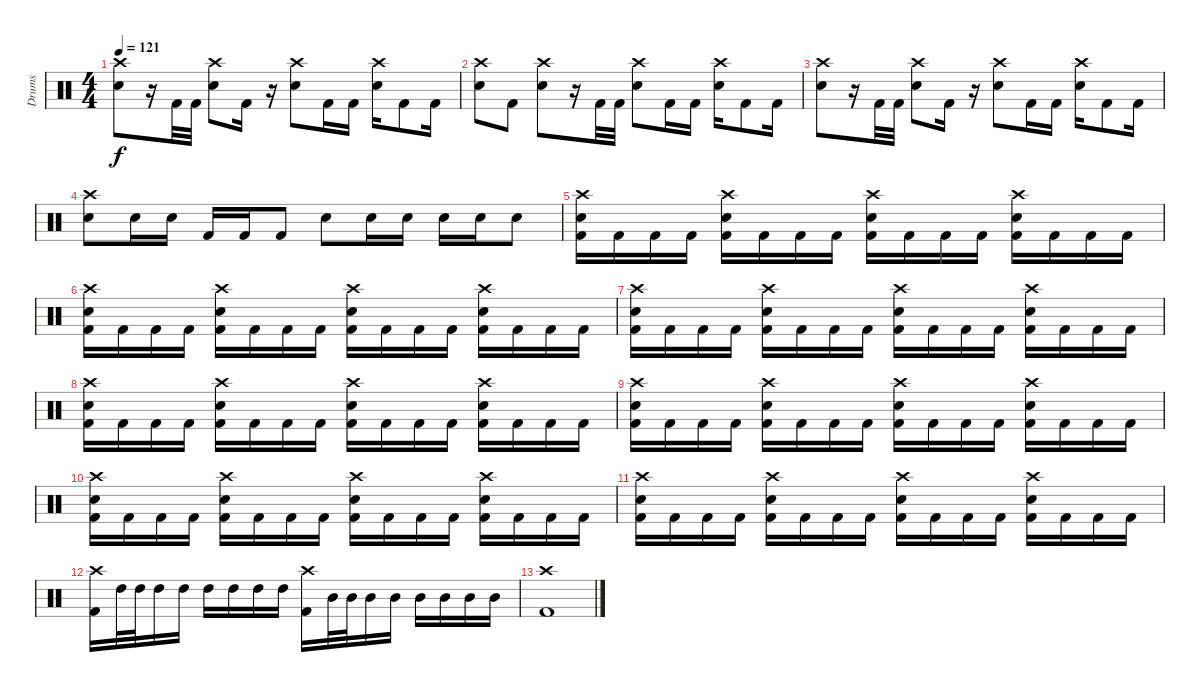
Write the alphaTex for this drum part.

\track ("Drums" "Drums") {instrument percussion}
\staff {score}
\articulation defaults
\ts (4 4)
\tempo 121
\clef neutral
\ks c
("Crash high (hit)" "Electric Snare (hit)").8{dy f} r.16 "Kick (hit) 2".32 "Kick (hit) 2".32 ("Crash high (hit)" "Electric Snare (hit)").8 "Kick (hit) 2".16 r.16 ("Crash high (hit)" "Electric Snare (hit)").8 "Kick (hit) 2".16 "Kick (hit) 2".16 ("Crash high (hit)" "Electric Snare (hit)").16 "Kick (hit) 2".8 "Kick (hit) 2".16 |
("Crash high (hit)" "Electric Snare (hit)").8 "Kick (hit) 2".8 ("Crash high (hit)" "Electric Snare (hit)").8 r.16 "Kick (hit) 2".32 "Kick (hit) 2".32 ("Crash high (hit)" "Electric Snare (hit)").8 "Kick (hit) 2".16 "Kick (hit) 2".16 ("Crash high (hit)" "Electric Snare (hit)").16 "Kick (hit) 2".8 "Kick (hit) 2".16 |
("Crash high (hit)" "Electric Snare (hit)").8 r.16 "Kick (hit) 2".32 "Kick (hit) 2".32 ("Crash high (hit)" "Electric Snare (hit)").8 "Kick (hit) 2".16 r.16 ("Crash high (hit)" "Electric Snare (hit)").8 "Kick (hit) 2".16 "Kick (hit) 2".16 ("Crash high (hit)" "Electric Snare (hit)").16 "Kick (hit) 2".8 "Kick (hit) 2".16 |
("Crash high (hit)" "Electric Snare (hit)").8 "Electric Snare (hit)".16 "Electric Snare (hit)".16 "Kick (hit) 2".16 "Kick (hit) 2".16 "Kick (hit) 2".8 "Electric Snare (hit)".8 "Electric Snare (hit)".16 "Electric Snare (hit)".16 "Electric Snare (hit)".16 "Electric Snare (hit)".16 "Electric Snare (hit)".8 |
("Crash high (hit)" "Electric Snare (hit)" "Kick (hit) 2").16 "Kick (hit) 2".16 "Kick (hit) 2".16 "Kick (hit) 2".16 ("Crash high (hit)" "Electric Snare (hit)" "Kick (hit) 2").16 "Kick (hit) 2".16 "Kick (hit) 2".16 "Kick (hit) 2".16 ("Crash high (hit)" "Electric Snare (hit)" "Kick (hit) 2").16 "Kick (hit) 2".16 "Kick (hit) 2".16 "Kick (hit) 2".16 ("Crash high (hit)" "Electric Snare (hit)" "Kick (hit) 2").16 "Kick (hit) 2".16 "Kick (hit) 2".16 "Kick (hit) 2".16 |
("Crash high (hit)" "Electric Snare (hit)" "Kick (hit) 2").16 "Kick (hit) 2".16 "Kick (hit) 2".16 "Kick (hit) 2".16 ("Crash high (hit)" "Electric Snare (hit)" "Kick (hit) 2").16 "Kick (hit) 2".16 "Kick (hit) 2".16 "Kick (hit) 2".16 ("Crash high (hit)" "Electric Snare (hit)" "Kick (hit) 2").16 "Kick (hit) 2".16 "Kick (hit) 2".16 "Kick (hit) 2".16 ("Crash high (hit)" "Electric Snare (hit)" "Kick (hit) 2").16 "Kick (hit) 2".16 "Kick (hit) 2".16 "Kick (hit) 2".16 |
("Crash high (hit)" "Electric Snare (hit)" "Kick (hit) 2").16 "Kick (hit) 2".16 "Kick (hit) 2".16 "Kick (hit) 2".16 ("Crash high (hit)" "Electric Snare (hit)" "Kick (hit) 2").16 "Kick (hit) 2".16 "Kick (hit) 2".16 "Kick (hit) 2".16 ("Crash high (hit)" "Electric Snare (hit)" "Kick (hit) 2").16 "Kick (hit) 2".16 "Kick (hit) 2".16 "Kick (hit) 2".16 ("Crash high (hit)" "Electric Snare (hit)" "Kick (hit) 2").16 "Kick (hit) 2".16 "Kick (hit) 2".16 "Kick (hit) 2".16 |
("Crash high (hit)" "Electric Snare (hit)" "Kick (hit) 2").16 "Kick (hit) 2".16 "Kick (hit) 2".16 "Kick (hit) 2".16 ("Crash high (hit)" "Electric Snare (hit)" "Kick (hit) 2").16 "Kick (hit) 2".16 "Kick (hit) 2".16 "Kick (hit) 2".16 ("Crash high (hit)" "Electric Snare (hit)" "Kick (hit) 2").16 "Kick (hit) 2".16 "Kick (hit) 2".16 "Kick (hit) 2".16 ("Crash high (hit)" "Electric Snare (hit)" "Kick (hit) 2").16 "Kick (hit) 2".16 "Kick (hit) 2".16 "Kick (hit) 2".16 |
("Crash high (hit)" "Electric Snare (hit)" "Kick (hit) 2").16 "Kick (hit) 2".16 "Kick (hit) 2".16 "Kick (hit) 2".16 ("Crash high (hit)" "Electric Snare (hit)" "Kick (hit) 2").16 "Kick (hit) 2".16 "Kick (hit) 2".16 "Kick (hit) 2".16 ("Crash high (hit)" "Electric Snare (hit)" "Kick (hit) 2").16 "Kick (hit) 2".16 "Kick (hit) 2".16 "Kick (hit) 2".16 ("Crash high (hit)" "Electric Snare (hit)" "Kick (hit) 2").16 "Kick (hit) 2".16 "Kick (hit) 2".16 "Kick (hit) 2".16 |
("Crash high (hit)" "Electric Snare (hit)" "Kick (hit) 2").16 "Kick (hit) 2".16 "Kick (hit) 2".16 "Kick (hit) 2".16 ("Crash high (hit)" "Electric Snare (hit)" "Kick (hit) 2").16 "Kick (hit) 2".16 "Kick (hit) 2".16 "Kick (hit) 2".16 ("Crash high (hit)" "Electric Snare (hit)" "Kick (hit) 2").16 "Kick (hit) 2".16 "Kick (hit) 2".16 "Kick (hit) 2".16 ("Crash high (hit)" "Electric Snare (hit)" "Kick (hit) 2").16 "Kick (hit) 2".16 "Kick (hit) 2".16 "Kick (hit) 2".16 |
("Crash high (hit)" "Electric Snare (hit)" "Kick (hit) 2").16 "Kick (hit) 2".16 "Kick (hit) 2".16 "Kick (hit) 2".16 ("Crash high (hit)" "Electric Snare (hit)" "Kick (hit) 2").16 "Kick (hit) 2".16 "Kick (hit) 2".16 "Kick (hit) 2".16 ("Crash high (hit)" "Electric Snare (hit)" "Kick (hit) 2").16 "Kick (hit) 2".16 "Kick (hit) 2".16 "Kick (hit) 2".16 ("Crash high (hit)" "Electric Snare (hit)" "Kick (hit) 2").16 "Kick (hit) 2".16 "Kick (hit) 2".16 "Kick (hit) 2".16 |
("Crash high (hit)" "Kick (hit) 2").16 "High Tom (hit)".32 "High Tom (hit)".32 "High Tom (hit)".16 "High Tom (hit)".16 "High Tom (hit)".16 "High Tom (hit)".16 "High Tom (hit)".16 "High Tom (hit)".16 ("Crash high (hit)" "Kick (hit) 2").16 "Mid Tom (hit)".32 "Mid Tom (hit)".32 "Mid Tom (hit)".16 "Mid Tom (hit)".16 "Mid Tom (hit)".16 "Mid Tom (hit)".16 "Mid Tom (hit)".16 "Mid Tom (hit)".16 |
("Crash high (hit)" "Kick (hit) 2").1
